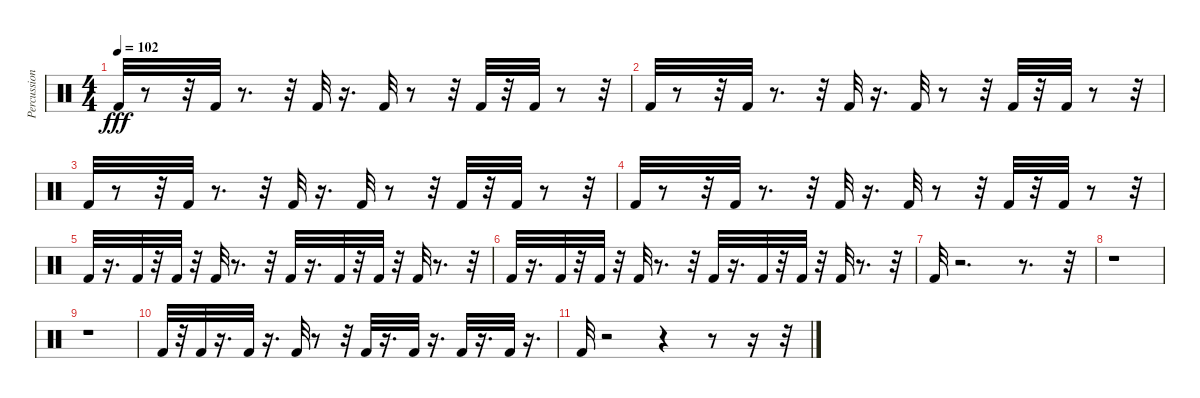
\track ("Percussion" "Percussion") {instrument percussion}
\staff {score}
\articulation defaults
\ts (4 4)
\tempo 102
\clef neutral
\ks c "Kick (hit) 2".32{dy fff}
r.8 r.32 "Kick (hit) 2".32 r.8{d} r.32 "Kick (hit) 2".32 r.16{d} "Kick (hit) 2".32 r.8 r.32 "Kick (hit) 2".32 r.32 "Kick (hit) 2".32 r.8 r.32 |
"Kick (hit) 2".32 r.8 r.32 "Kick (hit) 2".32 r.8{d} r.32 "Kick (hit) 2".32 r.16{d} "Kick (hit) 2".32 r.8 r.32 "Kick (hit) 2".32 r.32 "Kick (hit) 2".32 r.8 r.32 |
"Kick (hit) 2".32 r.8 r.32 "Kick (hit) 2".32 r.8{d} r.32 "Kick (hit) 2".32 r.16{d} "Kick (hit) 2".32 r.8 r.32 "Kick (hit) 2".32 r.32 "Kick (hit) 2".32 r.8 r.32 |
"Kick (hit) 2".32 r.8 r.32 "Kick (hit) 2".32 r.8{d} r.32 "Kick (hit) 2".32 r.16{d} "Kick (hit) 2".32 r.8 r.32 "Kick (hit) 2".32 r.32 "Kick (hit) 2".32 r.8 r.32 |
"Kick (hit) 2".32 r.16{d} "Kick (hit) 2".32 r.32 "Kick (hit) 2".32 r.32 "Kick (hit) 2".32 r.8{d} r.32 "Kick (hit) 2".32 r.16{d} "Kick (hit) 2".32 r.32 "Kick (hit) 2".32 r.32 "Kick (hit) 2".32 r.8{d} r.32 |
"Kick (hit) 2".32 r.16{d} "Kick (hit) 2".32 r.32 "Kick (hit) 2".32 r.32 "Kick (hit) 2".32 r.8{d} r.32 "Kick (hit) 2".32 r.16{d} "Kick (hit) 2".32 r.32 "Kick (hit) 2".32 r.32 "Kick (hit) 2".32 r.8{d} r.32 |
"Kick (hit) 2".32 r.2{d} r.8{d} r.32 |
r.1 |
r.1 |
"Kick (hit) 2".32 r.32 "Kick (hit) 2".32 r.16{d} "Kick (hit) 2".32 r.16{d} "Kick (hit) 2".32 r.8 r.32 "Kick (hit) 2".32 r.16{d} "Kick (hit) 2".32 r.16{d} "Kick (hit) 2".32 r.16{d} "Kick (hit) 2".32 r.16{d} |
"Kick (hit) 2".32 r.2 r.4 r.8 r.16 r.32
